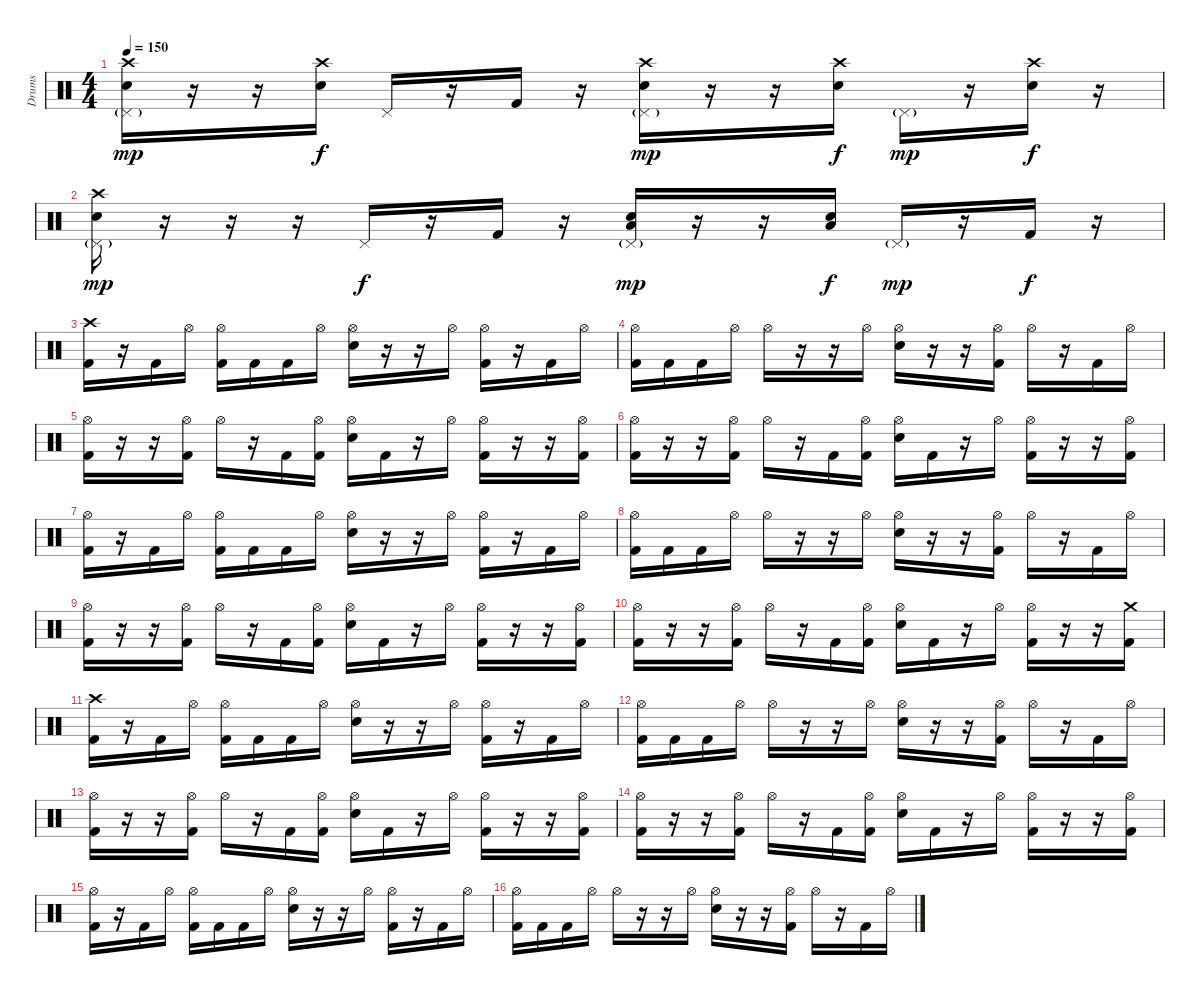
\track ("Drums" "Drums") {instrument percussion}
\staff {score}
\articulation defaults
\ts (4 4)
\tempo 150
\clef neutral
\ks c
("Crash high (hit)" "Pedal Hi-Hat (hit)"{g} "Snare (hit) 2").16{dy mp} r.16 r.16 ("Crash high (hit)" "Snare (hit) 2").16{dy f} "Pedal Hi-Hat (hit)".16 r.16 "Kick (hit) 2".16 r.16 ("Crash high (hit)" "Pedal Hi-Hat (hit)"{g} "Snare (hit) 2").16{dy mp} r.16 r.16 ("Crash high (hit)" "Snare (hit) 2").16{dy f} "Pedal Hi-Hat (hit)"{g}.16{dy mp} r.16 ("Crash high (hit)" "Snare (hit) 2").16{dy f} r.16 |
("Crash high (hit)" "Pedal Hi-Hat (hit)"{g} "Snare (hit) 2").16{dy mp} r.16 r.16 r.16 "Pedal Hi-Hat (hit)".16{dy f} r.16 "Kick (hit) 2".16 r.16 ("Pedal Hi-Hat (hit)"{g} "Low Tom (hit)" "Snare (hit) 2").16{dy mp} r.16 r.16 ("Low Tom (hit)" "Snare (hit) 2").16{dy f} "Pedal Hi-Hat (hit)"{g}.16{dy mp} r.16 "Kick (hit) 2".16{dy f} r.16 |
("Crash high (hit)" "Kick (hit) 2").16 r.16 "Kick (hit) 2".16 "Hi-Hat (open)".16 ("Hi-Hat (open)" "Kick (hit) 2").16 "Kick (hit) 2".16 "Kick (hit) 2".16 "Hi-Hat (open)".16 ("Hi-Hat (open)" "Snare (hit) 2").16 r.16 r.16 "Hi-Hat (open)".16 ("Hi-Hat (open)" "Kick (hit) 2").16 r.16 "Kick (hit) 2".16 "Hi-Hat (open)".16 |
("Hi-Hat (open)" "Kick (hit) 2").16 "Kick (hit) 2".16 "Kick (hit) 2".16 "Hi-Hat (open)".16 "Hi-Hat (open)".16 r.16 r.16 "Hi-Hat (open)".16 ("Hi-Hat (open)" "Snare (hit) 2").16 r.16 r.16 ("Hi-Hat (open)" "Kick (hit) 2").16 "Hi-Hat (open)".16 r.16 "Kick (hit) 2".16 "Hi-Hat (open)".16 |
("Hi-Hat (open)" "Kick (hit) 2").16 r.16 r.16 ("Hi-Hat (open)" "Kick (hit) 2").16 "Hi-Hat (open)".16 r.16 "Kick (hit) 2".16 ("Hi-Hat (open)" "Kick (hit) 2").16 ("Hi-Hat (open)" "Snare (hit) 2").16 "Kick (hit) 2".16 r.16 "Hi-Hat (open)".16 ("Hi-Hat (open)" "Kick (hit) 2").16 r.16 r.16 ("Hi-Hat (open)" "Kick (hit) 2").16 |
("Hi-Hat (open)" "Kick (hit) 2").16 r.16 r.16 ("Hi-Hat (open)" "Kick (hit) 2").16 "Hi-Hat (open)".16 r.16 "Kick (hit) 2".16 ("Hi-Hat (open)" "Kick (hit) 2").16 ("Hi-Hat (open)" "Snare (hit) 2").16 "Kick (hit) 2".16 r.16 "Hi-Hat (open)".16 ("Hi-Hat (open)" "Kick (hit) 2").16 r.16 r.16 ("Hi-Hat (open)" "Kick (hit) 2").16 |
("Hi-Hat (open)" "Kick (hit) 2").16 r.16 "Kick (hit) 2".16 "Hi-Hat (open)".16 ("Hi-Hat (open)" "Kick (hit) 2").16 "Kick (hit) 2".16 "Kick (hit) 2".16 "Hi-Hat (open)".16 ("Hi-Hat (open)" "Snare (hit) 2").16 r.16 r.16 "Hi-Hat (open)".16 ("Hi-Hat (open)" "Kick (hit) 2").16 r.16 "Kick (hit) 2".16 "Hi-Hat (open)".16 |
("Hi-Hat (open)" "Kick (hit) 2").16 "Kick (hit) 2".16 "Kick (hit) 2".16 "Hi-Hat (open)".16 "Hi-Hat (open)".16 r.16 r.16 "Hi-Hat (open)".16 ("Hi-Hat (open)" "Snare (hit) 2").16 r.16 r.16 ("Hi-Hat (open)" "Kick (hit) 2").16 "Hi-Hat (open)".16 r.16 "Kick (hit) 2".16 "Hi-Hat (open)".16 |
("Hi-Hat (open)" "Kick (hit) 2").16 r.16 r.16 ("Hi-Hat (open)" "Kick (hit) 2").16 "Hi-Hat (open)".16 r.16 "Kick (hit) 2".16 ("Hi-Hat (open)" "Kick (hit) 2").16 ("Hi-Hat (open)" "Snare (hit) 2").16 "Kick (hit) 2".16 r.16 "Hi-Hat (open)".16 ("Hi-Hat (open)" "Kick (hit) 2").16 r.16 r.16 ("Hi-Hat (open)" "Kick (hit) 2").16 |
("Hi-Hat (open)" "Kick (hit) 2").16 r.16 r.16 ("Hi-Hat (open)" "Kick (hit) 2").16 "Hi-Hat (open)".16 r.16 "Kick (hit) 2".16 ("Hi-Hat (open)" "Kick (hit) 2").16 ("Hi-Hat (open)" "Snare (hit) 2").16 "Kick (hit) 2".16 r.16 "Hi-Hat (open)".16 ("Hi-Hat (open)" "Kick (hit) 2").16 r.16 r.16 ("Crash medium (hit)" "Kick (hit) 2").16 |
("Crash high (hit)" "Kick (hit) 2").16 r.16 "Kick (hit) 2".16 "Hi-Hat (open)".16 ("Hi-Hat (open)" "Kick (hit) 2").16 "Kick (hit) 2".16 "Kick (hit) 2".16 "Hi-Hat (open)".16 ("Hi-Hat (open)" "Snare (hit) 2").16 r.16 r.16 "Hi-Hat (open)".16 ("Hi-Hat (open)" "Kick (hit) 2").16 r.16 "Kick (hit) 2".16 "Hi-Hat (open)".16 |
("Hi-Hat (open)" "Kick (hit) 2").16 "Kick (hit) 2".16 "Kick (hit) 2".16 "Hi-Hat (open)".16 "Hi-Hat (open)".16 r.16 r.16 "Hi-Hat (open)".16 ("Hi-Hat (open)" "Snare (hit) 2").16 r.16 r.16 ("Hi-Hat (open)" "Kick (hit) 2").16 "Hi-Hat (open)".16 r.16 "Kick (hit) 2".16 "Hi-Hat (open)".16 |
("Hi-Hat (open)" "Kick (hit) 2").16 r.16 r.16 ("Hi-Hat (open)" "Kick (hit) 2").16 "Hi-Hat (open)".16 r.16 "Kick (hit) 2".16 ("Hi-Hat (open)" "Kick (hit) 2").16 ("Hi-Hat (open)" "Snare (hit) 2").16 "Kick (hit) 2".16 r.16 "Hi-Hat (open)".16 ("Hi-Hat (open)" "Kick (hit) 2").16 r.16 r.16 ("Hi-Hat (open)" "Kick (hit) 2").16 |
("Hi-Hat (open)" "Kick (hit) 2").16 r.16 r.16 ("Hi-Hat (open)" "Kick (hit) 2").16 "Hi-Hat (open)".16 r.16 "Kick (hit) 2".16 ("Hi-Hat (open)" "Kick (hit) 2").16 ("Hi-Hat (open)" "Snare (hit) 2").16 "Kick (hit) 2".16 r.16 "Hi-Hat (open)".16 ("Hi-Hat (open)" "Kick (hit) 2").16 r.16 r.16 ("Hi-Hat (open)" "Kick (hit) 2").16 |
("Hi-Hat (open)" "Kick (hit) 2").16 r.16 "Kick (hit) 2".16 "Hi-Hat (open)".16 ("Hi-Hat (open)" "Kick (hit) 2").16 "Kick (hit) 2".16 "Kick (hit) 2".16 "Hi-Hat (open)".16 ("Hi-Hat (open)" "Snare (hit) 2").16 r.16 r.16 "Hi-Hat (open)".16 ("Hi-Hat (open)" "Kick (hit) 2").16 r.16 "Kick (hit) 2".16 "Hi-Hat (open)".16 |
("Hi-Hat (open)" "Kick (hit) 2").16 "Kick (hit) 2".16 "Kick (hit) 2".16 "Hi-Hat (open)".16 "Hi-Hat (open)".16 r.16 r.16 "Hi-Hat (open)".16 ("Hi-Hat (open)" "Snare (hit) 2").16 r.16 r.16 ("Hi-Hat (open)" "Kick (hit) 2").16 "Hi-Hat (open)".16 r.16 "Kick (hit) 2".16 "Hi-Hat (open)".16
